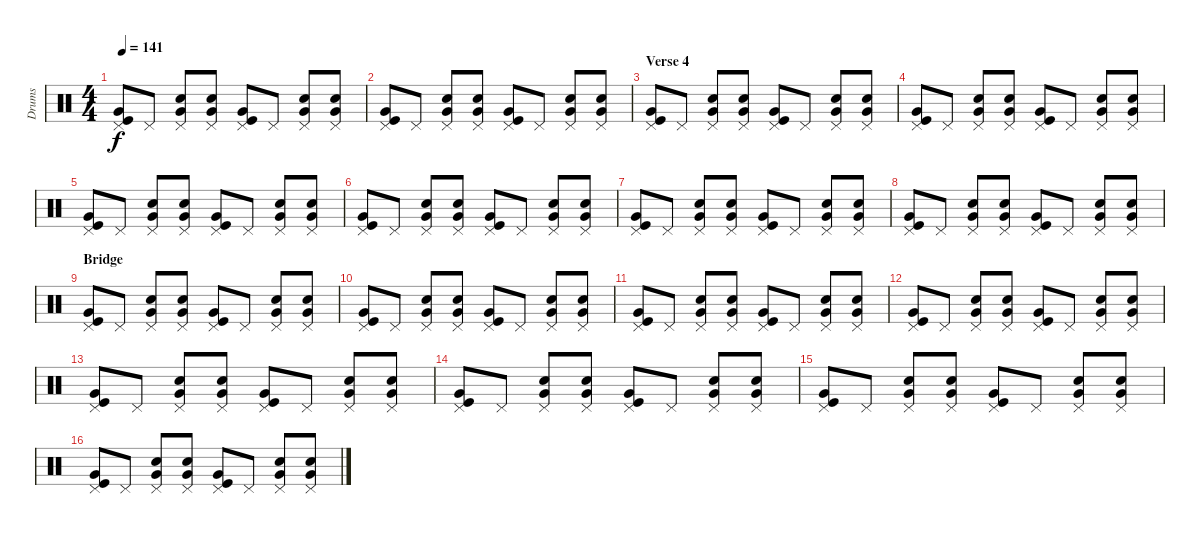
\track ("Drums" "Drums") {instrument percussion}
\staff {score}
\articulation defaults
\ts (4 4)
\tempo 141
\clef neutral
\ks c
("Pedal Hi-Hat (hit)" "Very Low Tom (hit)" "Kick (hit)").8{dy f} "Pedal Hi-Hat (hit)".8 ("Pedal Hi-Hat (hit)" "Very Low Tom (hit)" "Snare (hit) 2").8 ("Pedal Hi-Hat (hit)" "Very Low Tom (hit)" "Snare (hit) 2").8 ("Pedal Hi-Hat (hit)" "Very Low Tom (hit)" "Kick (hit)").8 "Pedal Hi-Hat (hit)".8 ("Pedal Hi-Hat (hit)" "Very Low Tom (hit)" "Snare (hit) 2").8 ("Pedal Hi-Hat (hit)" "Very Low Tom (hit)" "Snare (hit) 2").8 |
("Pedal Hi-Hat (hit)" "Very Low Tom (hit)" "Kick (hit)").8 "Pedal Hi-Hat (hit)".8 ("Pedal Hi-Hat (hit)" "Very Low Tom (hit)" "Snare (hit) 2").8 ("Pedal Hi-Hat (hit)" "Very Low Tom (hit)" "Snare (hit) 2").8 ("Pedal Hi-Hat (hit)" "Very Low Tom (hit)" "Kick (hit)").8 "Pedal Hi-Hat (hit)".8 ("Pedal Hi-Hat (hit)" "Very Low Tom (hit)" "Snare (hit) 2").8 ("Pedal Hi-Hat (hit)" "Very Low Tom (hit)" "Snare (hit) 2").8 |
\section ("" "Verse 4")
("Pedal Hi-Hat (hit)" "Very Low Tom (hit)" "Kick (hit)").8 "Pedal Hi-Hat (hit)".8 ("Pedal Hi-Hat (hit)" "Very Low Tom (hit)" "Snare (hit) 2").8 ("Pedal Hi-Hat (hit)" "Very Low Tom (hit)" "Snare (hit) 2").8 ("Pedal Hi-Hat (hit)" "Very Low Tom (hit)" "Kick (hit)").8 "Pedal Hi-Hat (hit)".8 ("Pedal Hi-Hat (hit)" "Very Low Tom (hit)" "Snare (hit) 2").8 ("Pedal Hi-Hat (hit)" "Very Low Tom (hit)" "Snare (hit) 2").8 |
("Pedal Hi-Hat (hit)" "Very Low Tom (hit)" "Kick (hit)").8 "Pedal Hi-Hat (hit)".8 ("Pedal Hi-Hat (hit)" "Very Low Tom (hit)" "Snare (hit) 2").8 ("Pedal Hi-Hat (hit)" "Very Low Tom (hit)" "Snare (hit) 2").8 ("Pedal Hi-Hat (hit)" "Very Low Tom (hit)" "Kick (hit)").8 "Pedal Hi-Hat (hit)".8 ("Pedal Hi-Hat (hit)" "Very Low Tom (hit)" "Snare (hit) 2").8 ("Pedal Hi-Hat (hit)" "Very Low Tom (hit)" "Snare (hit) 2").8 |
("Pedal Hi-Hat (hit)" "Very Low Tom (hit)" "Kick (hit)").8 "Pedal Hi-Hat (hit)".8 ("Pedal Hi-Hat (hit)" "Very Low Tom (hit)" "Snare (hit) 2").8 ("Pedal Hi-Hat (hit)" "Very Low Tom (hit)" "Snare (hit) 2").8 ("Pedal Hi-Hat (hit)" "Very Low Tom (hit)" "Kick (hit)").8 "Pedal Hi-Hat (hit)".8 ("Pedal Hi-Hat (hit)" "Very Low Tom (hit)" "Snare (hit) 2").8 ("Pedal Hi-Hat (hit)" "Very Low Tom (hit)" "Snare (hit) 2").8 |
("Pedal Hi-Hat (hit)" "Very Low Tom (hit)" "Kick (hit)").8 "Pedal Hi-Hat (hit)".8 ("Pedal Hi-Hat (hit)" "Very Low Tom (hit)" "Snare (hit) 2").8 ("Pedal Hi-Hat (hit)" "Very Low Tom (hit)" "Snare (hit) 2").8 ("Pedal Hi-Hat (hit)" "Very Low Tom (hit)" "Kick (hit)").8 "Pedal Hi-Hat (hit)".8 ("Pedal Hi-Hat (hit)" "Very Low Tom (hit)" "Snare (hit) 2").8 ("Pedal Hi-Hat (hit)" "Very Low Tom (hit)" "Snare (hit) 2").8 |
("Pedal Hi-Hat (hit)" "Very Low Tom (hit)" "Kick (hit)").8 "Pedal Hi-Hat (hit)".8 ("Pedal Hi-Hat (hit)" "Very Low Tom (hit)" "Snare (hit) 2").8 ("Pedal Hi-Hat (hit)" "Very Low Tom (hit)" "Snare (hit) 2").8 ("Pedal Hi-Hat (hit)" "Very Low Tom (hit)" "Kick (hit)").8 "Pedal Hi-Hat (hit)".8 ("Pedal Hi-Hat (hit)" "Very Low Tom (hit)" "Snare (hit) 2").8 ("Pedal Hi-Hat (hit)" "Very Low Tom (hit)" "Snare (hit) 2").8 |
("Pedal Hi-Hat (hit)" "Very Low Tom (hit)" "Kick (hit)").8 "Pedal Hi-Hat (hit)".8 ("Pedal Hi-Hat (hit)" "Very Low Tom (hit)" "Snare (hit) 2").8 ("Pedal Hi-Hat (hit)" "Very Low Tom (hit)" "Snare (hit) 2").8 ("Pedal Hi-Hat (hit)" "Very Low Tom (hit)" "Kick (hit)").8 "Pedal Hi-Hat (hit)".8 ("Pedal Hi-Hat (hit)" "Very Low Tom (hit)" "Snare (hit) 2").8 ("Pedal Hi-Hat (hit)" "Very Low Tom (hit)" "Snare (hit) 2").8 |
\section ("" "Bridge")
("Pedal Hi-Hat (hit)" "Very Low Tom (hit)" "Kick (hit)").8 "Pedal Hi-Hat (hit)".8 ("Pedal Hi-Hat (hit)" "Very Low Tom (hit)" "Snare (hit) 2").8 ("Pedal Hi-Hat (hit)" "Very Low Tom (hit)" "Snare (hit) 2").8 ("Pedal Hi-Hat (hit)" "Very Low Tom (hit)" "Kick (hit)").8 "Pedal Hi-Hat (hit)".8 ("Pedal Hi-Hat (hit)" "Very Low Tom (hit)" "Snare (hit) 2").8 ("Pedal Hi-Hat (hit)" "Very Low Tom (hit)" "Snare (hit) 2").8 |
("Pedal Hi-Hat (hit)" "Very Low Tom (hit)" "Kick (hit)").8 "Pedal Hi-Hat (hit)".8 ("Pedal Hi-Hat (hit)" "Very Low Tom (hit)" "Snare (hit) 2").8 ("Pedal Hi-Hat (hit)" "Very Low Tom (hit)" "Snare (hit) 2").8 ("Pedal Hi-Hat (hit)" "Very Low Tom (hit)" "Kick (hit)").8 "Pedal Hi-Hat (hit)".8 ("Pedal Hi-Hat (hit)" "Very Low Tom (hit)" "Snare (hit) 2").8 ("Pedal Hi-Hat (hit)" "Very Low Tom (hit)" "Snare (hit) 2").8 |
("Pedal Hi-Hat (hit)" "Very Low Tom (hit)" "Kick (hit)").8 "Pedal Hi-Hat (hit)".8 ("Pedal Hi-Hat (hit)" "Very Low Tom (hit)" "Snare (hit) 2").8 ("Pedal Hi-Hat (hit)" "Very Low Tom (hit)" "Snare (hit) 2").8 ("Pedal Hi-Hat (hit)" "Very Low Tom (hit)" "Kick (hit)").8 "Pedal Hi-Hat (hit)".8 ("Pedal Hi-Hat (hit)" "Very Low Tom (hit)" "Snare (hit) 2").8 ("Pedal Hi-Hat (hit)" "Very Low Tom (hit)" "Snare (hit) 2").8 |
("Pedal Hi-Hat (hit)" "Very Low Tom (hit)" "Kick (hit)").8 "Pedal Hi-Hat (hit)".8 ("Pedal Hi-Hat (hit)" "Very Low Tom (hit)" "Snare (hit) 2").8 ("Pedal Hi-Hat (hit)" "Very Low Tom (hit)" "Snare (hit) 2").8 ("Pedal Hi-Hat (hit)" "Very Low Tom (hit)" "Kick (hit)").8 "Pedal Hi-Hat (hit)".8 ("Pedal Hi-Hat (hit)" "Very Low Tom (hit)" "Snare (hit) 2").8 ("Pedal Hi-Hat (hit)" "Very Low Tom (hit)" "Snare (hit) 2").8 |
("Pedal Hi-Hat (hit)" "Very Low Tom (hit)" "Kick (hit)").8 "Pedal Hi-Hat (hit)".8 ("Pedal Hi-Hat (hit)" "Very Low Tom (hit)" "Snare (hit) 2").8 ("Pedal Hi-Hat (hit)" "Very Low Tom (hit)" "Snare (hit) 2").8 ("Pedal Hi-Hat (hit)" "Very Low Tom (hit)" "Kick (hit)").8 "Pedal Hi-Hat (hit)".8 ("Pedal Hi-Hat (hit)" "Very Low Tom (hit)" "Snare (hit) 2").8 ("Pedal Hi-Hat (hit)" "Very Low Tom (hit)" "Snare (hit) 2").8 |
("Pedal Hi-Hat (hit)" "Very Low Tom (hit)" "Kick (hit)").8 "Pedal Hi-Hat (hit)".8 ("Pedal Hi-Hat (hit)" "Very Low Tom (hit)" "Snare (hit) 2").8 ("Pedal Hi-Hat (hit)" "Very Low Tom (hit)" "Snare (hit) 2").8 ("Pedal Hi-Hat (hit)" "Very Low Tom (hit)" "Kick (hit)").8 "Pedal Hi-Hat (hit)".8 ("Pedal Hi-Hat (hit)" "Very Low Tom (hit)" "Snare (hit) 2").8 ("Pedal Hi-Hat (hit)" "Very Low Tom (hit)" "Snare (hit) 2").8 |
("Pedal Hi-Hat (hit)" "Very Low Tom (hit)" "Kick (hit)").8 "Pedal Hi-Hat (hit)".8 ("Pedal Hi-Hat (hit)" "Very Low Tom (hit)" "Snare (hit) 2").8 ("Pedal Hi-Hat (hit)" "Very Low Tom (hit)" "Snare (hit) 2").8 ("Pedal Hi-Hat (hit)" "Very Low Tom (hit)" "Kick (hit)").8 "Pedal Hi-Hat (hit)".8 ("Pedal Hi-Hat (hit)" "Very Low Tom (hit)" "Snare (hit) 2").8 ("Pedal Hi-Hat (hit)" "Very Low Tom (hit)" "Snare (hit) 2").8 |
("Pedal Hi-Hat (hit)" "Very Low Tom (hit)" "Kick (hit)").8 "Pedal Hi-Hat (hit)".8 ("Pedal Hi-Hat (hit)" "Very Low Tom (hit)" "Snare (hit) 2").8 ("Pedal Hi-Hat (hit)" "Very Low Tom (hit)" "Snare (hit) 2").8 ("Pedal Hi-Hat (hit)" "Very Low Tom (hit)" "Kick (hit)").8 "Pedal Hi-Hat (hit)".8 ("Pedal Hi-Hat (hit)" "Very Low Tom (hit)" "Snare (hit) 2").8 ("Pedal Hi-Hat (hit)" "Very Low Tom (hit)" "Snare (hit) 2").8
